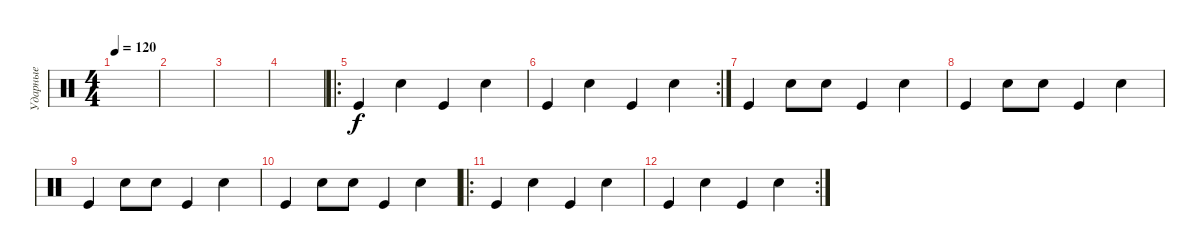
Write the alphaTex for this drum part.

\track ("Ударные" "Ударные") {instrument percussion}
\staff {score}
\articulation defaults
\ts (4 4)
\tempo 120
\clef neutral
\ks c
|
|
|
|
\ro "Kick (hit)".4 "Snare (hit) 2".4 "Kick (hit)".4 "Snare (hit) 2".4
|
\rc 2 "Kick (hit)".4 "Snare (hit) 2".4 "Kick (hit)".4 "Snare (hit) 2".4
|
"Kick (hit)".4 "Snare (hit) 2".8 "Snare (hit) 2".8 "Kick (hit)".4 "Snare (hit) 2".4 |
"Kick (hit)".4 "Snare (hit) 2".8 "Snare (hit) 2".8 "Kick (hit)".4 "Snare (hit) 2".4 |
"Kick (hit)".4 "Snare (hit) 2".8 "Snare (hit) 2".8 "Kick (hit)".4 "Snare (hit) 2".4 |
"Kick (hit)".4 "Snare (hit) 2".8 "Snare (hit) 2".8 "Kick (hit)".4 "Snare (hit) 2".4 |
\ro "Kick (hit)".4 "Snare (hit) 2".4 "Kick (hit)".4 "Snare (hit) 2".4
|
\rc 2 "Kick (hit)".4 "Snare (hit) 2".4 "Kick (hit)".4 "Snare (hit) 2".4
